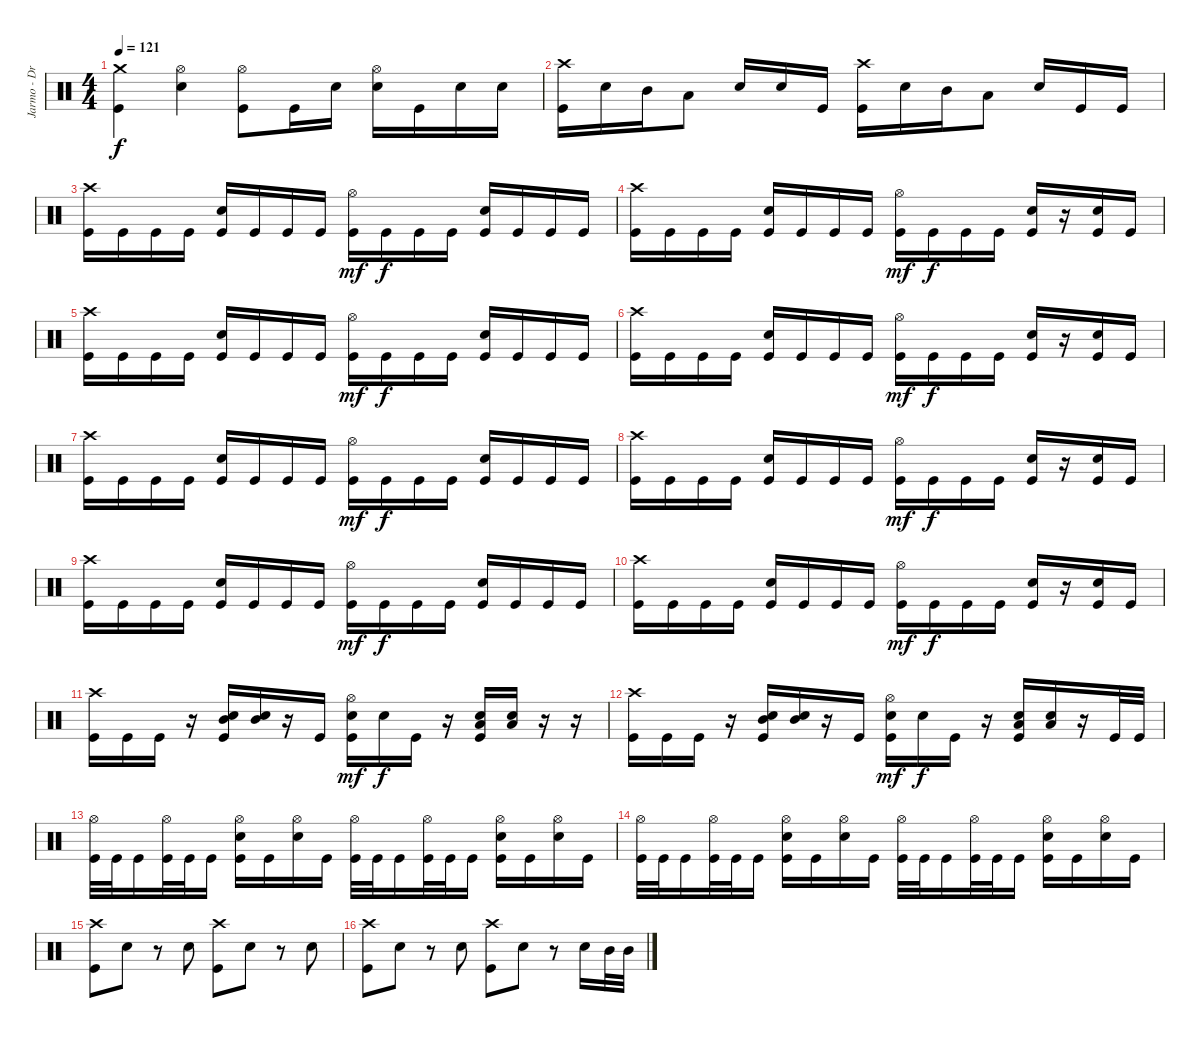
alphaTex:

\track ("Jarmo - Drums" "Jarmo - Dr") {instrument percussion}
\staff {score}
\articulation defaults
\ts (4 4)
\tempo 121
\clef neutral
\ks c
("Kick (hit)" "Crash medium (hit)").4{dy f} ("Electric Snare (hit)" "Hi-Hat (open)").4 ("Kick (hit)" "Hi-Hat (open)").8 "Kick (hit)".16 "Electric Snare (hit)".16 ("Electric Snare (hit)" "Hi-Hat (open)").16 "Kick (hit)".16 "Electric Snare (hit)".16 "Electric Snare (hit)".16 |
("Kick (hit)" "Crash high (hit)").16 "Electric Snare (hit)".16 "Mid Tom (hit)".16 "Low Tom (hit)".8 "Electric Snare (hit)".16 "Electric Snare (hit)".16 "Kick (hit)".16 ("Kick (hit)" "Crash high (hit)").16 "Electric Snare (hit)".16 "Mid Tom (hit)".16 "Low Tom (hit)".8 "Electric Snare (hit)".16 "Kick (hit)".16 "Kick (hit)".16 |
("Kick (hit)" "Crash high (hit)").16 "Kick (hit)".16 "Kick (hit)".16 "Kick (hit)".16 ("Kick (hit)" "Electric Snare (hit)").16 "Kick (hit)".16 "Kick (hit)".16 "Kick (hit)".16 ("Kick (hit)" "Hi-Hat (open)").16{dy mf} "Kick (hit)".16{dy f} "Kick (hit)".16 "Kick (hit)".16 ("Kick (hit)" "Electric Snare (hit)").16 "Kick (hit)".16 "Kick (hit)".16 "Kick (hit)".16 |
("Kick (hit)" "Crash high (hit)").16 "Kick (hit)".16 "Kick (hit)".16 "Kick (hit)".16 ("Kick (hit)" "Electric Snare (hit)").16 "Kick (hit)".16 "Kick (hit)".16 "Kick (hit)".16 ("Kick (hit)" "Hi-Hat (open)").16{dy mf} "Kick (hit)".16{dy f} "Kick (hit)".16 "Kick (hit)".16 ("Kick (hit)" "Electric Snare (hit)").16 r.16 ("Kick (hit)" "Electric Snare (hit)").16 "Kick (hit)".16 |
("Kick (hit)" "Crash high (hit)").16 "Kick (hit)".16 "Kick (hit)".16 "Kick (hit)".16 ("Kick (hit)" "Electric Snare (hit)").16 "Kick (hit)".16 "Kick (hit)".16 "Kick (hit)".16 ("Kick (hit)" "Hi-Hat (open)").16{dy mf} "Kick (hit)".16{dy f} "Kick (hit)".16 "Kick (hit)".16 ("Kick (hit)" "Electric Snare (hit)").16 "Kick (hit)".16 "Kick (hit)".16 "Kick (hit)".16 |
("Kick (hit)" "Crash high (hit)").16 "Kick (hit)".16 "Kick (hit)".16 "Kick (hit)".16 ("Kick (hit)" "Electric Snare (hit)").16 "Kick (hit)".16 "Kick (hit)".16 "Kick (hit)".16 ("Kick (hit)" "Hi-Hat (open)").16{dy mf} "Kick (hit)".16{dy f} "Kick (hit)".16 "Kick (hit)".16 ("Kick (hit)" "Electric Snare (hit)").16 r.16 ("Kick (hit)" "Electric Snare (hit)").16 "Kick (hit)".16 |
("Kick (hit)" "Crash high (hit)").16 "Kick (hit)".16 "Kick (hit)".16 "Kick (hit)".16 ("Kick (hit)" "Electric Snare (hit)").16 "Kick (hit)".16 "Kick (hit)".16 "Kick (hit)".16 ("Kick (hit)" "Hi-Hat (open)").16{dy mf} "Kick (hit)".16{dy f} "Kick (hit)".16 "Kick (hit)".16 ("Kick (hit)" "Electric Snare (hit)").16 "Kick (hit)".16 "Kick (hit)".16 "Kick (hit)".16 |
("Kick (hit)" "Crash high (hit)").16 "Kick (hit)".16 "Kick (hit)".16 "Kick (hit)".16 ("Kick (hit)" "Electric Snare (hit)").16 "Kick (hit)".16 "Kick (hit)".16 "Kick (hit)".16 ("Kick (hit)" "Hi-Hat (open)").16{dy mf} "Kick (hit)".16{dy f} "Kick (hit)".16 "Kick (hit)".16 ("Kick (hit)" "Electric Snare (hit)").16 r.16 ("Kick (hit)" "Electric Snare (hit)").16 "Kick (hit)".16 |
("Kick (hit)" "Crash high (hit)").16 "Kick (hit)".16 "Kick (hit)".16 "Kick (hit)".16 ("Kick (hit)" "Electric Snare (hit)").16 "Kick (hit)".16 "Kick (hit)".16 "Kick (hit)".16 ("Kick (hit)" "Hi-Hat (open)").16{dy mf} "Kick (hit)".16{dy f} "Kick (hit)".16 "Kick (hit)".16 ("Kick (hit)" "Electric Snare (hit)").16 "Kick (hit)".16 "Kick (hit)".16 "Kick (hit)".16 |
("Kick (hit)" "Crash high (hit)").16 "Kick (hit)".16 "Kick (hit)".16 "Kick (hit)".16 ("Kick (hit)" "Electric Snare (hit)").16 "Kick (hit)".16 "Kick (hit)".16 "Kick (hit)".16 ("Kick (hit)" "Hi-Hat (open)").16{dy mf} "Kick (hit)".16{dy f} "Kick (hit)".16 "Kick (hit)".16 ("Kick (hit)" "Electric Snare (hit)").16 r.16 ("Kick (hit)" "Electric Snare (hit)").16 "Kick (hit)".16 |
("Kick (hit)" "Crash high (hit)").16 "Kick (hit)".16 "Kick (hit)".16 r.16 ("Kick (hit)" "Electric Snare (hit)" "Mid Tom (hit)").16 ("Electric Snare (hit)" "Mid Tom (hit)").16 r.16 "Kick (hit)".16 ("Kick (hit)" "Electric Snare (hit)" "Hi-Hat (open)").16{dy mf} "Electric Snare (hit)".16{dy f} "Kick (hit)".16 r.16 ("Kick (hit)" "Electric Snare (hit)" "Low Tom (hit)").16 ("Electric Snare (hit)" "Low Tom (hit)").16 r.16 r.16 |
("Kick (hit)" "Crash high (hit)").16 "Kick (hit)".16 "Kick (hit)".16 r.16 ("Kick (hit)" "Electric Snare (hit)" "Mid Tom (hit)").16 ("Electric Snare (hit)" "Mid Tom (hit)").16 r.16 "Kick (hit)".16 ("Kick (hit)" "Electric Snare (hit)" "Hi-Hat (open)").16{dy mf} "Electric Snare (hit)".16{dy f} "Kick (hit)".16 r.16 ("Kick (hit)" "Electric Snare (hit)" "Low Tom (hit)").16 ("Electric Snare (hit)" "Low Tom (hit)").16 r.16 "Kick (hit)".32 "Kick (hit)".32 |
("Kick (hit)" "Hi-Hat (open)").32 "Kick (hit)".32 "Kick (hit)".16 ("Kick (hit)" "Hi-Hat (open)").32 "Kick (hit)".32 "Kick (hit)".16 ("Kick (hit)" "Electric Snare (hit)" "Hi-Hat (open)").16 "Kick (hit)".16 ("Electric Snare (hit)" "Hi-Hat (open)").16 "Kick (hit)".16 ("Kick (hit)" "Hi-Hat (open)").32 "Kick (hit)".32 "Kick (hit)".16 ("Kick (hit)" "Hi-Hat (open)").32 "Kick (hit)".32 "Kick (hit)".16 ("Kick (hit)" "Electric Snare (hit)" "Hi-Hat (open)").16 "Kick (hit)".16 ("Electric Snare (hit)" "Hi-Hat (open)").16 "Kick (hit)".16 |
("Kick (hit)" "Hi-Hat (open)").32 "Kick (hit)".32 "Kick (hit)".16 ("Kick (hit)" "Hi-Hat (open)").32 "Kick (hit)".32 "Kick (hit)".16 ("Kick (hit)" "Electric Snare (hit)" "Hi-Hat (open)").16 "Kick (hit)".16 ("Electric Snare (hit)" "Hi-Hat (open)").16 "Kick (hit)".16 ("Kick (hit)" "Hi-Hat (open)").32 "Kick (hit)".32 "Kick (hit)".16 ("Kick (hit)" "Hi-Hat (open)").32 "Kick (hit)".32 "Kick (hit)".16 ("Kick (hit)" "Electric Snare (hit)" "Hi-Hat (open)").16 "Kick (hit)".16 ("Electric Snare (hit)" "Hi-Hat (open)").16 "Kick (hit)".16 |
("Kick (hit)" "Crash high (hit)").8 "Electric Snare (hit)".8 r.8 "Electric Snare (hit)".8 ("Kick (hit)" "Crash high (hit)").8 "Electric Snare (hit)".8 r.8 "Electric Snare (hit)".8 |
("Kick (hit)" "Crash high (hit)").8 "Electric Snare (hit)".8 r.8 "Electric Snare (hit)".8 ("Kick (hit)" "Crash high (hit)").8 "Electric Snare (hit)".8 r.8 "Electric Snare (hit)".16 "Mid Tom (hit)".32 "Mid Tom (hit)".32
